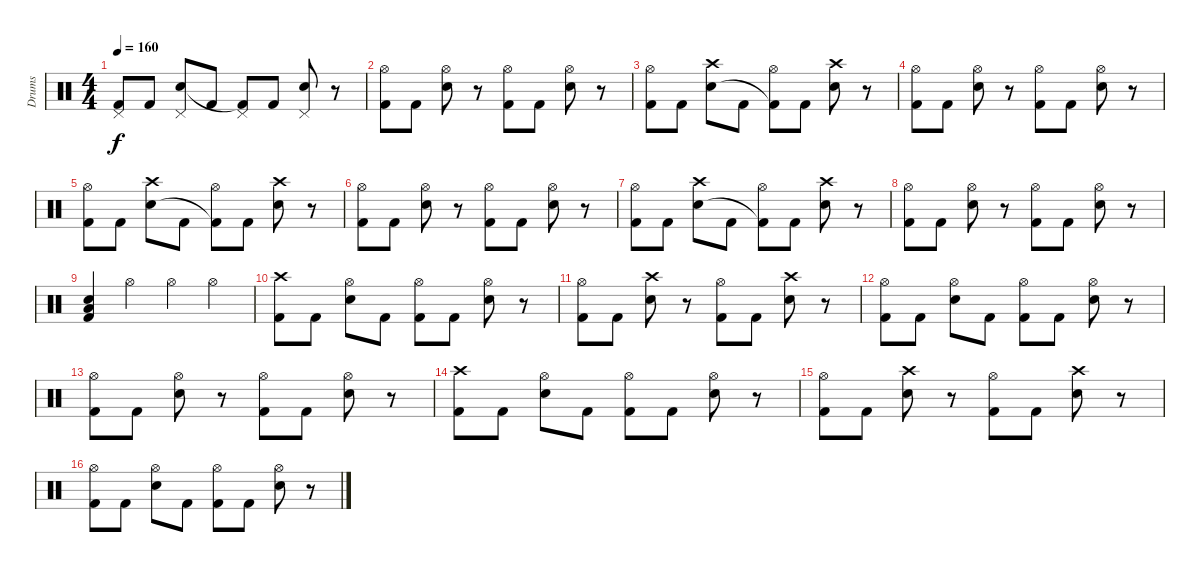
\track ("Drums" "Drums") {instrument percussion}
\staff {score}
\articulation defaults
\ts (4 4)
\tempo 160
\clef neutral
\ks c
("Pedal Hi-Hat (hit)" "Kick (hit) 2").8{dy f} "Kick (hit) 2".8 ("Pedal Hi-Hat (hit)" "Snare (hit) 2").8 "Kick (hit) 2".8 ("Pedal Hi-Hat (hit)" "Kick (hit) 2"{t}).8 "Kick (hit) 2".8 ("Pedal Hi-Hat (hit)" "Snare (hit) 2").8 r.8 |
("Hi-Hat (open)" "Kick (hit) 2").8 "Kick (hit) 2".8 ("Hi-Hat (open)" "Snare (hit) 2").8 r.8 ("Hi-Hat (open)" "Kick (hit) 2").8 "Kick (hit) 2".8 ("Hi-Hat (open)" "Snare (hit) 2").8 r.8 |
("Hi-Hat (open)" "Kick (hit) 2").8 "Kick (hit) 2".8 ("Crash high (hit)" "Snare (hit) 2").8 "Kick (hit) 2".8 ("Hi-Hat (open)" "Kick (hit) 2"{t}).8 "Kick (hit) 2".8 ("Crash high (hit)" "Snare (hit) 2").8 r.8 |
("Hi-Hat (open)" "Kick (hit) 2").8 "Kick (hit) 2".8 ("Hi-Hat (open)" "Snare (hit) 2").8 r.8 ("Hi-Hat (open)" "Kick (hit) 2").8 "Kick (hit) 2".8 ("Hi-Hat (open)" "Snare (hit) 2").8 r.8 |
("Hi-Hat (open)" "Kick (hit) 2").8 "Kick (hit) 2".8 ("Crash high (hit)" "Snare (hit) 2").8 "Kick (hit) 2".8 ("Hi-Hat (open)" "Kick (hit) 2"{t}).8 "Kick (hit) 2".8 ("Crash high (hit)" "Snare (hit) 2").8 r.8 |
("Hi-Hat (open)" "Kick (hit) 2").8 "Kick (hit) 2".8 ("Hi-Hat (open)" "Snare (hit) 2").8 r.8 ("Hi-Hat (open)" "Kick (hit) 2").8 "Kick (hit) 2".8 ("Hi-Hat (open)" "Snare (hit) 2").8 r.8 |
("Hi-Hat (open)" "Kick (hit) 2").8 "Kick (hit) 2".8 ("Crash high (hit)" "Snare (hit) 2").8 "Kick (hit) 2".8 ("Hi-Hat (open)" "Kick (hit) 2"{t}).8 "Kick (hit) 2".8 ("Crash high (hit)" "Snare (hit) 2").8 r.8 |
("Hi-Hat (open)" "Kick (hit) 2").8 "Kick (hit) 2".8 ("Hi-Hat (open)" "Snare (hit) 2").8 r.8 ("Hi-Hat (open)" "Kick (hit) 2").8 "Kick (hit) 2".8 ("Hi-Hat (open)" "Snare (hit) 2").8 r.8 |
("Low Tom (hit)" "Snare (hit) 2" "Kick (hit) 2").4 "Hi-Hat (open)".4 "Hi-Hat (open)".4 "Hi-Hat (open)".4 |
("Crash high (hit)" "Kick (hit) 2").8 "Kick (hit) 2".8 ("Hi-Hat (open)" "Snare (hit) 2").8 "Kick (hit) 2".8 ("Hi-Hat (open)" "Kick (hit) 2").8 "Kick (hit) 2".8 ("Hi-Hat (open)" "Snare (hit) 2").8 r.8 |
("Hi-Hat (open)" "Kick (hit) 2").8 "Kick (hit) 2".8 ("Crash high (hit)" "Snare (hit) 2").8 r.8 ("Hi-Hat (open)" "Kick (hit) 2").8 "Kick (hit) 2".8 ("Crash high (hit)" "Snare (hit) 2").8 r.8 |
("Hi-Hat (open)" "Kick (hit) 2").8 "Kick (hit) 2".8 ("Hi-Hat (open)" "Snare (hit) 2").8 "Kick (hit) 2".8 ("Hi-Hat (open)" "Kick (hit) 2").8 "Kick (hit) 2".8 ("Hi-Hat (open)" "Snare (hit) 2").8 r.8 |
("Hi-Hat (open)" "Kick (hit) 2").8 "Kick (hit) 2".8 ("Hi-Hat (open)" "Snare (hit) 2").8 r.8 ("Hi-Hat (open)" "Kick (hit) 2").8 "Kick (hit) 2".8 ("Hi-Hat (open)" "Snare (hit) 2").8 r.8 |
("Crash high (hit)" "Kick (hit) 2").8 "Kick (hit) 2".8 ("Hi-Hat (open)" "Snare (hit) 2").8 "Kick (hit) 2".8 ("Hi-Hat (open)" "Kick (hit) 2").8 "Kick (hit) 2".8 ("Hi-Hat (open)" "Snare (hit) 2").8 r.8 |
("Hi-Hat (open)" "Kick (hit) 2").8 "Kick (hit) 2".8 ("Crash high (hit)" "Snare (hit) 2").8 r.8 ("Hi-Hat (open)" "Kick (hit) 2").8 "Kick (hit) 2".8 ("Crash high (hit)" "Snare (hit) 2").8 r.8 |
("Hi-Hat (open)" "Kick (hit) 2").8 "Kick (hit) 2".8 ("Hi-Hat (open)" "Snare (hit) 2").8 "Kick (hit) 2".8 ("Hi-Hat (open)" "Kick (hit) 2").8 "Kick (hit) 2".8 ("Hi-Hat (open)" "Snare (hit) 2").8 r.8
